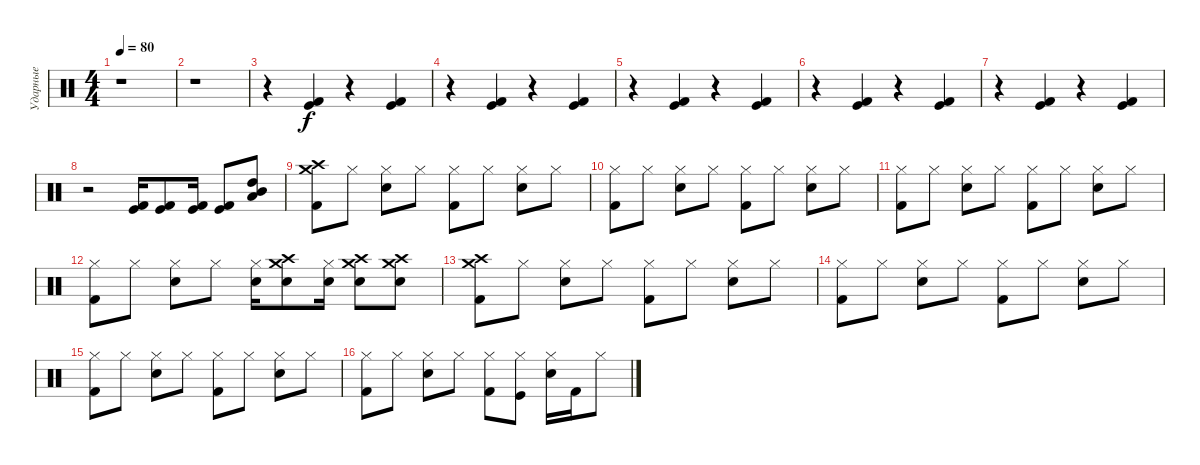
\track ("Ударные" "Ударные") {instrument percussion}
\staff {score}
\articulation defaults
\ts (4 4)
\tempo 80
\clef neutral
\ks c
r.1{dy f} |
r.1 |
r.4 ("Kick (hit)" "Kick (hit) 2").4 r.4 ("Kick (hit)" "Kick (hit) 2").4 |
r.4 ("Kick (hit)" "Kick (hit) 2").4 r.4 ("Kick (hit)" "Kick (hit) 2").4 |
r.4 ("Kick (hit)" "Kick (hit) 2").4 r.4 ("Kick (hit)" "Kick (hit) 2").4 |
r.4 ("Kick (hit)" "Kick (hit) 2").4 r.4 ("Kick (hit)" "Kick (hit) 2").4 |
r.4 ("Kick (hit)" "Kick (hit) 2").4 r.4 ("Kick (hit)" "Kick (hit) 2").4 |
r.2 ("Kick (hit)" "Kick (hit) 2").16 ("Kick (hit)" "Kick (hit) 2").8 ("Kick (hit)" "Kick (hit) 2").16 ("Kick (hit)" "Kick (hit) 2").8 ("Mid Tom (hit)" "Low Floor Tom (hit)" "High Tom (hit)").8 |
("Crash high (hit)" "Crash medium (hit)" "Kick (hit) 2").8 "Hi-Hat (closed)".8 ("Hi-Hat (closed)" "Snare (hit) 2").8 "Hi-Hat (closed)".8 ("Hi-Hat (closed)" "Kick (hit) 2").8 "Hi-Hat (closed)".8 ("Hi-Hat (closed)" "Snare (hit) 2").8 "Hi-Hat (closed)".8 |
("Hi-Hat (closed)" "Kick (hit) 2").8 "Hi-Hat (closed)".8 ("Hi-Hat (closed)" "Snare (hit) 2").8 "Hi-Hat (closed)".8 ("Hi-Hat (closed)" "Kick (hit) 2").8 "Hi-Hat (closed)".8 ("Hi-Hat (closed)" "Snare (hit) 2").8 "Hi-Hat (closed)".8 |
("Hi-Hat (closed)" "Kick (hit) 2").8 "Hi-Hat (closed)".8 ("Hi-Hat (closed)" "Snare (hit) 2").8 "Hi-Hat (closed)".8 ("Hi-Hat (closed)" "Kick (hit) 2").8 "Hi-Hat (closed)".8 ("Hi-Hat (closed)" "Snare (hit) 2").8 "Hi-Hat (closed)".8 |
("Hi-Hat (closed)" "Kick (hit) 2").8 "Hi-Hat (closed)".8 ("Hi-Hat (closed)" "Snare (hit) 2").8 "Hi-Hat (closed)".8 ("Hi-Hat (closed)" "Snare (hit) 2").16 ("Crash high (hit)" "Crash medium (hit)" "Snare (hit) 2").8 ("Hi-Hat (closed)" "Snare (hit) 2").16 ("Crash high (hit)" "Snare (hit) 2" "Crash medium (hit)").8 ("Crash high (hit)" "Crash medium (hit)" "Snare (hit) 2").8 |
("Crash high (hit)" "Crash medium (hit)" "Kick (hit) 2").8 "Hi-Hat (closed)".8 ("Hi-Hat (closed)" "Snare (hit) 2").8 "Hi-Hat (closed)".8 ("Hi-Hat (closed)" "Kick (hit) 2").8 "Hi-Hat (closed)".8 ("Hi-Hat (closed)" "Snare (hit) 2").8 "Hi-Hat (closed)".8 |
("Hi-Hat (closed)" "Kick (hit) 2").8 "Hi-Hat (closed)".8 ("Hi-Hat (closed)" "Snare (hit) 2").8 "Hi-Hat (closed)".8 ("Hi-Hat (closed)" "Kick (hit) 2").8 "Hi-Hat (closed)".8 ("Hi-Hat (closed)" "Snare (hit) 2").8 "Hi-Hat (closed)".8 |
("Hi-Hat (closed)" "Kick (hit) 2").8 "Hi-Hat (closed)".8 ("Hi-Hat (closed)" "Snare (hit) 2").8 "Hi-Hat (closed)".8 ("Hi-Hat (closed)" "Kick (hit) 2").8 "Hi-Hat (closed)".8 ("Hi-Hat (closed)" "Snare (hit) 2").8 "Hi-Hat (closed)".8 |
("Hi-Hat (closed)" "Kick (hit) 2").8 "Hi-Hat (closed)".8 ("Hi-Hat (closed)" "Snare (hit) 2").8 "Hi-Hat (closed)".8 ("Hi-Hat (closed)" "Kick (hit) 2").8 ("Hi-Hat (closed)" "Kick (hit)").8 ("Hi-Hat (closed)" "Snare (hit) 2").16 "Kick (hit) 2".16 "Hi-Hat (closed)".8
